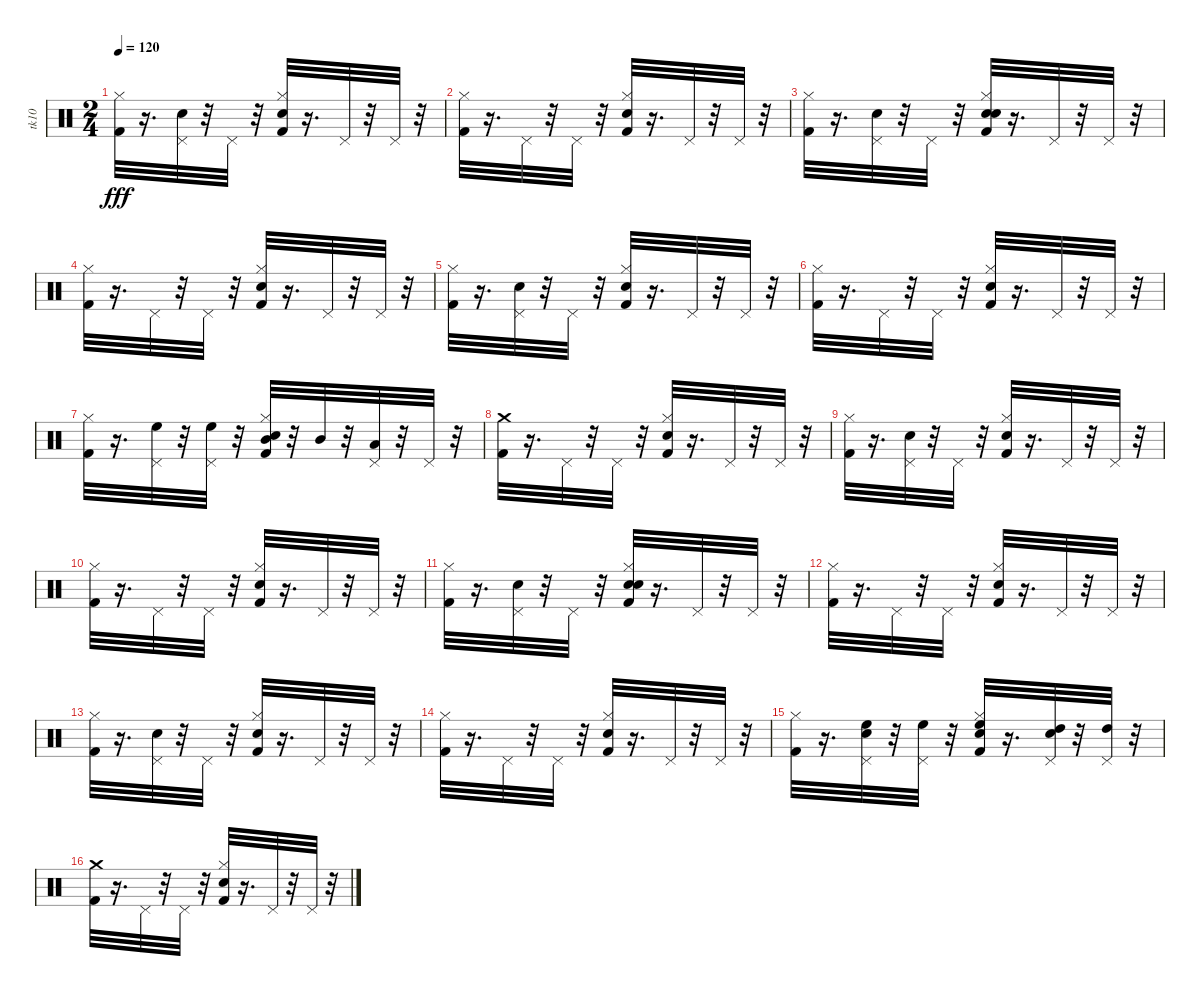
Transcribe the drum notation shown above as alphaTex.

\track ("tk10" "tk10") {instrument percussion}
\staff {score}
\articulation defaults
\ts (2 4)
\tempo 120
\clef neutral
\ks c
("Kick (hit) 2" "Hi-Hat (closed)").32{dy fff} r.16{d} ("Pedal Hi-Hat (hit)" "Hand Clap (hit)").32 r.32 "Pedal Hi-Hat (hit)".32 r.32 ("Snare (hit) 2" "Kick (hit) 2" "Hi-Hat (closed)").32 r.16{d} "Pedal Hi-Hat (hit)".32 r.32 "Pedal Hi-Hat (hit)".32 r.32 |
("Kick (hit) 2" "Hi-Hat (closed)").32 r.16{d} "Pedal Hi-Hat (hit)".32 r.32 "Pedal Hi-Hat (hit)".32 r.32 ("Snare (hit) 2" "Kick (hit) 2" "Hi-Hat (closed)").32 r.16{d} "Pedal Hi-Hat (hit)".32 r.32 "Pedal Hi-Hat (hit)".32 r.32 |
("Kick (hit) 2" "Hi-Hat (closed)").32 r.16{d} ("Hand Clap (hit)" "Pedal Hi-Hat (hit)").32 r.32 "Pedal Hi-Hat (hit)".32 r.32 ("Snare (hit) 2" "Kick (hit) 2" "Hand Clap (hit)" "Hi-Hat (closed)").32 r.16{d} "Pedal Hi-Hat (hit)".32 r.32 "Pedal Hi-Hat (hit)".32 r.32 |
("Kick (hit) 2" "Hi-Hat (closed)").32 r.16{d} "Pedal Hi-Hat (hit)".32 r.32 "Pedal Hi-Hat (hit)".32 r.32 ("Kick (hit) 2" "Snare (hit) 2" "Hi-Hat (closed)").32 r.16{d} "Pedal Hi-Hat (hit)".32 r.32 "Pedal Hi-Hat (hit)".32 r.32 |
("Kick (hit) 2" "Hi-Hat (closed)").32 r.16{d} ("Hand Clap (hit)" "Pedal Hi-Hat (hit)").32 r.32 "Pedal Hi-Hat (hit)".32 r.32 ("Kick (hit) 2" "Snare (hit) 2" "Hi-Hat (closed)").32 r.16{d} "Pedal Hi-Hat (hit)".32 r.32 "Pedal Hi-Hat (hit)".32 r.32 |
("Kick (hit) 2" "Hi-Hat (closed)").32 r.16{d} "Pedal Hi-Hat (hit)".32 r.32 "Pedal Hi-Hat (hit)".32 r.32 ("Snare (hit) 2" "Kick (hit) 2" "Hi-Hat (closed)").32 r.16{d} "Pedal Hi-Hat (hit)".32 r.32 "Pedal Hi-Hat (hit)".32 r.32 |
("Kick (hit) 2" "Hi-Hat (closed)").32 r.16{d} ("High Floor Tom (hit)" "Pedal Hi-Hat (hit)").32 r.32 ("High Floor Tom (hit)" "Pedal Hi-Hat (hit)").32 r.32 ("Snare (hit) 2" "Kick (hit) 2" "Mid Tom (hit)" "Hi-Hat (closed)").32 r.32 "Mid Tom (hit)".32 r.32 ("Low Tom (hit)" "Pedal Hi-Hat (hit)").32 r.32 "Pedal Hi-Hat (hit)".32 r.32 |
("Kick (hit) 2" "Crash medium (hit)").32 r.16{d} "Pedal Hi-Hat (hit)".32 r.32 "Pedal Hi-Hat (hit)".32 r.32 ("Snare (hit) 2" "Kick (hit) 2" "Hi-Hat (closed)").32 r.16{d} "Pedal Hi-Hat (hit)".32 r.32 "Pedal Hi-Hat (hit)".32 r.32 |
("Kick (hit) 2" "Hi-Hat (closed)").32 r.16{d} ("Pedal Hi-Hat (hit)" "Hand Clap (hit)").32 r.32 "Pedal Hi-Hat (hit)".32 r.32 ("Snare (hit) 2" "Kick (hit) 2" "Hi-Hat (closed)").32 r.16{d} "Pedal Hi-Hat (hit)".32 r.32 "Pedal Hi-Hat (hit)".32 r.32 |
("Kick (hit) 2" "Hi-Hat (closed)").32 r.16{d} "Pedal Hi-Hat (hit)".32 r.32 "Pedal Hi-Hat (hit)".32 r.32 ("Snare (hit) 2" "Kick (hit) 2" "Hi-Hat (closed)").32 r.16{d} "Pedal Hi-Hat (hit)".32 r.32 "Pedal Hi-Hat (hit)".32 r.32 |
("Kick (hit) 2" "Hi-Hat (closed)").32 r.16{d} ("Hand Clap (hit)" "Pedal Hi-Hat (hit)").32 r.32 "Pedal Hi-Hat (hit)".32 r.32 ("Snare (hit) 2" "Kick (hit) 2" "Hi-Hat (closed)" "Hand Clap (hit)").32 r.16{d} "Pedal Hi-Hat (hit)".32 r.32 "Pedal Hi-Hat (hit)".32 r.32 |
("Kick (hit) 2" "Hi-Hat (closed)").32 r.16{d} "Pedal Hi-Hat (hit)".32 r.32 "Pedal Hi-Hat (hit)".32 r.32 ("Kick (hit) 2" "Snare (hit) 2" "Hi-Hat (closed)").32 r.16{d} "Pedal Hi-Hat (hit)".32 r.32 "Pedal Hi-Hat (hit)".32 r.32 |
("Kick (hit) 2" "Hi-Hat (closed)").32 r.16{d} ("Hand Clap (hit)" "Pedal Hi-Hat (hit)").32 r.32 "Pedal Hi-Hat (hit)".32 r.32 ("Kick (hit) 2" "Snare (hit) 2" "Hi-Hat (closed)").32 r.16{d} "Pedal Hi-Hat (hit)".32 r.32 "Pedal Hi-Hat (hit)".32 r.32 |
("Kick (hit) 2" "Hi-Hat (closed)").32 r.16{d} "Pedal Hi-Hat (hit)".32 r.32 "Pedal Hi-Hat (hit)".32 r.32 ("Snare (hit) 2" "Kick (hit) 2" "Hi-Hat (closed)").32 r.16{d} "Pedal Hi-Hat (hit)".32 r.32 "Pedal Hi-Hat (hit)".32 r.32 |
("Kick (hit) 2" "Hi-Hat (closed)").32 r.16{d} ("Hand Clap (hit)" "High Floor Tom (hit)" "Pedal Hi-Hat (hit)").32 r.32 ("High Floor Tom (hit)" "Pedal Hi-Hat (hit)").32 r.32 ("Snare (hit) 2" "Kick (hit) 2" "High Floor Tom (hit)" "Hi-Hat (closed)").32 r.16{d} ("High Tom (hit)" "Hand Clap (hit)" "Pedal Hi-Hat (hit)").32 r.32 ("High Tom (hit)" "Pedal Hi-Hat (hit)").32 r.32 |
("Kick (hit) 2" "Crash medium (hit)").32 r.16{d} "Pedal Hi-Hat (hit)".32 r.32 "Pedal Hi-Hat (hit)".32 r.32 ("Snare (hit) 2" "Kick (hit) 2" "Hi-Hat (closed)").32 r.16{d} "Pedal Hi-Hat (hit)".32 r.32 "Pedal Hi-Hat (hit)".32 r.32
